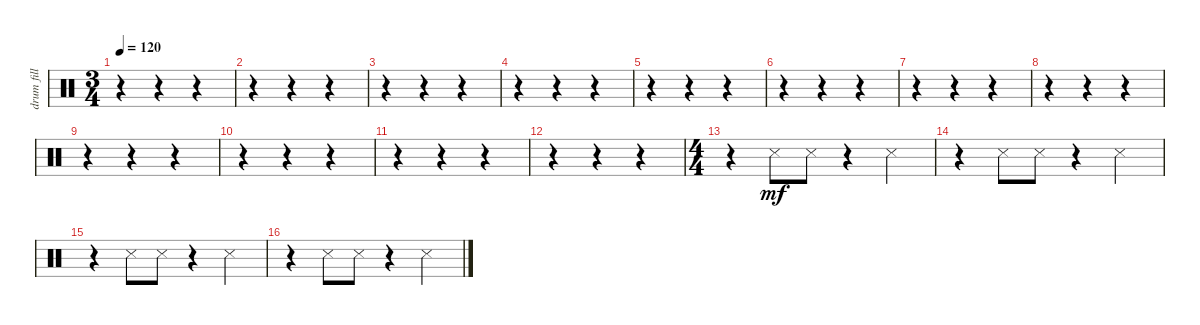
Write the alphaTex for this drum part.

\track ("drum fill" "drum fill") {instrument percussion}
\staff {score}
\articulation defaults
\ts (3 4)
\tempo 120
\clef neutral
\ks c
r.4{dy mf} r.4 r.4 |
r.4 r.4 r.4 |
r.4 r.4 r.4 |
r.4 r.4 r.4 |
r.4 r.4 r.4 |
r.4 r.4 r.4 |
r.4 r.4 r.4 |
r.4 r.4 r.4 |
r.4 r.4 r.4 |
r.4 r.4 r.4 |
r.4 r.4 r.4 |
r.4 r.4 r.4 |
\ts (4 4)
r.4 "Snare (side stick) 3".8 "Snare (side stick) 3".8 r.4 "Snare (side stick) 3".4 |
r.4 "Snare (side stick) 3".8 "Snare (side stick) 3".8 r.4 "Snare (side stick) 3".4 |
r.4 "Snare (side stick) 3".8 "Snare (side stick) 3".8 r.4 "Snare (side stick) 3".4 |
r.4 "Snare (side stick) 3".8 "Snare (side stick) 3".8 r.4 "Snare (side stick) 3".4
